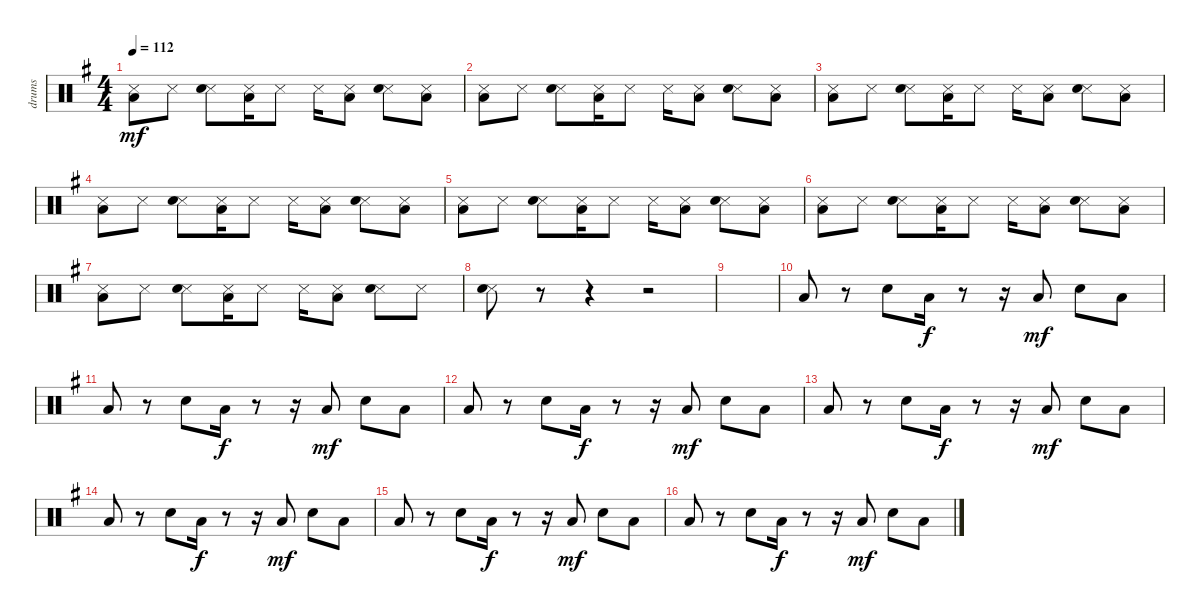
\track ("drums" "drums") {instrument percussion}
\staff {score}
\articulation defaults
\ts (4 4)
\tempo 112
\clef neutral
\ks g
("Snare (side stick) 3" "Low Floor Tom (hit)").8{dy mf} "Snare (side stick) 3".8 ("Snare (side stick) 3" "Snare (hit) 2").8 ("Snare (side stick) 3" "Low Floor Tom (hit)").16 "Snare (side stick) 3".8 "Snare (side stick) 3".16 ("Snare (side stick) 3" "Low Floor Tom (hit)").8 ("Snare (side stick) 3" "Snare (hit) 2").8 ("Snare (side stick) 3" "Low Floor Tom (hit)").8 |
("Snare (side stick) 3" "Low Floor Tom (hit)").8 "Snare (side stick) 3".8 ("Snare (side stick) 3" "Snare (hit) 2").8 ("Snare (side stick) 3" "Low Floor Tom (hit)").16 "Snare (side stick) 3".8 "Snare (side stick) 3".16 ("Snare (side stick) 3" "Low Floor Tom (hit)").8 ("Snare (side stick) 3" "Snare (hit) 2").8 ("Snare (side stick) 3" "Low Floor Tom (hit)").8 |
("Snare (side stick) 3" "Low Floor Tom (hit)").8 "Snare (side stick) 3".8 ("Snare (side stick) 3" "Snare (hit) 2").8 ("Snare (side stick) 3" "Low Floor Tom (hit)").16 "Snare (side stick) 3".8 "Snare (side stick) 3".16 ("Snare (side stick) 3" "Low Floor Tom (hit)").8 ("Snare (side stick) 3" "Snare (hit) 2").8 ("Snare (side stick) 3" "Low Floor Tom (hit)").8 |
("Snare (side stick) 3" "Low Floor Tom (hit)").8 "Snare (side stick) 3".8 ("Snare (side stick) 3" "Snare (hit) 2").8 ("Snare (side stick) 3" "Low Floor Tom (hit)").16 "Snare (side stick) 3".8 "Snare (side stick) 3".16 ("Snare (side stick) 3" "Low Floor Tom (hit)").8 ("Snare (side stick) 3" "Snare (hit) 2").8 ("Snare (side stick) 3" "Low Floor Tom (hit)").8 |
("Snare (side stick) 3" "Low Floor Tom (hit)").8 "Snare (side stick) 3".8 ("Snare (side stick) 3" "Snare (hit) 2").8 ("Snare (side stick) 3" "Low Floor Tom (hit)").16 "Snare (side stick) 3".8 "Snare (side stick) 3".16 ("Snare (side stick) 3" "Low Floor Tom (hit)").8 ("Snare (side stick) 3" "Snare (hit) 2").8 ("Snare (side stick) 3" "Low Floor Tom (hit)").8 |
("Snare (side stick) 3" "Low Floor Tom (hit)").8 "Snare (side stick) 3".8 ("Snare (side stick) 3" "Snare (hit) 2").8 ("Snare (side stick) 3" "Low Floor Tom (hit)").16 "Snare (side stick) 3".8 "Snare (side stick) 3".16 ("Snare (side stick) 3" "Low Floor Tom (hit)").8 ("Snare (side stick) 3" "Snare (hit) 2").8 ("Snare (side stick) 3" "Low Floor Tom (hit)").8 |
("Snare (side stick) 3" "Low Floor Tom (hit)").8 "Snare (side stick) 3".8 ("Snare (side stick) 3" "Snare (hit) 2").8 ("Snare (side stick) 3" "Low Floor Tom (hit)").16 "Snare (side stick) 3".8 "Snare (side stick) 3".16 ("Snare (side stick) 3" "Low Floor Tom (hit)").8 ("Snare (side stick) 3" "Snare (hit) 2").8 "Snare (side stick) 3".8 |
("Snare (side stick) 3" "Snare (hit) 2").8 r.8 r.4 r.2 |
|
"Low Floor Tom (hit)".8 r.8 "Snare (hit) 2".8 "Low Floor Tom (hit)".16{dy f} r.8 r.16 "Low Floor Tom (hit)".8{dy mf} "Snare (hit) 2".8 "Low Floor Tom (hit)".8 |
"Low Floor Tom (hit)".8 r.8 "Snare (hit) 2".8 "Low Floor Tom (hit)".16{dy f} r.8 r.16 "Low Floor Tom (hit)".8{dy mf} "Snare (hit) 2".8 "Low Floor Tom (hit)".8 |
"Low Floor Tom (hit)".8 r.8 "Snare (hit) 2".8 "Low Floor Tom (hit)".16{dy f} r.8 r.16 "Low Floor Tom (hit)".8{dy mf} "Snare (hit) 2".8 "Low Floor Tom (hit)".8 |
"Low Floor Tom (hit)".8 r.8 "Snare (hit) 2".8 "Low Floor Tom (hit)".16{dy f} r.8 r.16 "Low Floor Tom (hit)".8{dy mf} "Snare (hit) 2".8 "Low Floor Tom (hit)".8 |
"Low Floor Tom (hit)".8 r.8 "Snare (hit) 2".8 "Low Floor Tom (hit)".16{dy f} r.8 r.16 "Low Floor Tom (hit)".8{dy mf} "Snare (hit) 2".8 "Low Floor Tom (hit)".8 |
"Low Floor Tom (hit)".8 r.8 "Snare (hit) 2".8 "Low Floor Tom (hit)".16{dy f} r.8 r.16 "Low Floor Tom (hit)".8{dy mf} "Snare (hit) 2".8 "Low Floor Tom (hit)".8 |
"Low Floor Tom (hit)".8 r.8 "Snare (hit) 2".8 "Low Floor Tom (hit)".16{dy f} r.8 r.16 "Low Floor Tom (hit)".8{dy mf} "Snare (hit) 2".8 "Low Floor Tom (hit)".8
